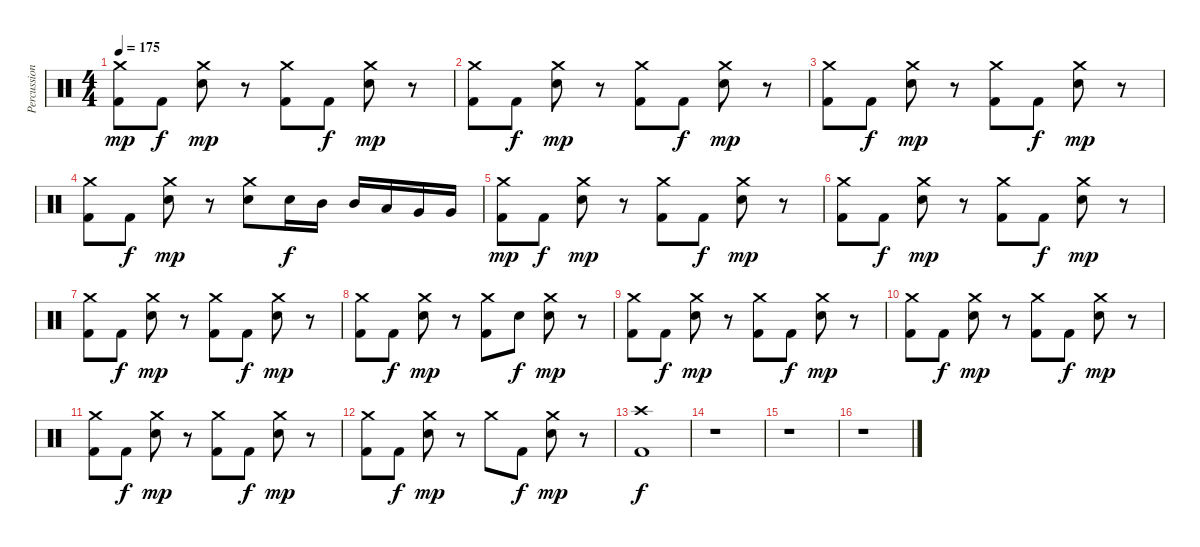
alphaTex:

\track ("Percussions" "Percussion") {instrument percussion}
\staff {score}
\articulation defaults
\ts (4 4)
\tempo 175
\clef neutral
\ks c
("Crash medium (hit)" "Kick (hit) 2").8{dy mp} "Kick (hit) 2".8{dy f} ("Crash medium (hit)" "Snare (hit) 2").8{dy mp} r.8 ("Crash medium (hit)" "Kick (hit) 2").8 "Kick (hit) 2".8{dy f} ("Crash medium (hit)" "Snare (hit) 2").8{dy mp} r.8 |
("Crash medium (hit)" "Kick (hit) 2").8 "Kick (hit) 2".8{dy f} ("Crash medium (hit)" "Snare (hit) 2").8{dy mp} r.8 ("Crash medium (hit)" "Kick (hit) 2").8 "Kick (hit) 2".8{dy f} ("Crash medium (hit)" "Snare (hit) 2").8{dy mp} r.8 |
("Crash medium (hit)" "Kick (hit) 2").8 "Kick (hit) 2".8{dy f} ("Crash medium (hit)" "Snare (hit) 2").8{dy mp} r.8 ("Crash medium (hit)" "Kick (hit) 2").8 "Kick (hit) 2".8{dy f} ("Crash medium (hit)" "Snare (hit) 2").8{dy mp} r.8 |
("Crash medium (hit)" "Kick (hit) 2").8 "Kick (hit) 2".8{dy f} ("Crash medium (hit)" "Snare (hit) 2").8{dy mp} r.8 ("Crash medium (hit)" "Snare (hit) 2").8 "Snare (hit) 2".16{dy f} "Mid Tom (hit)".16 "Mid Tom (hit)".16 "Low Tom (hit)".16 "Very Low Tom (hit)".16 "Very Low Tom (hit)".16 |
("Crash medium (hit)" "Kick (hit) 2").8{dy mp} "Kick (hit) 2".8{dy f} ("Crash medium (hit)" "Snare (hit) 2").8{dy mp} r.8 ("Crash medium (hit)" "Kick (hit) 2").8 "Kick (hit) 2".8{dy f} ("Crash medium (hit)" "Snare (hit) 2").8{dy mp} r.8 |
("Crash medium (hit)" "Kick (hit) 2").8 "Kick (hit) 2".8{dy f} ("Crash medium (hit)" "Snare (hit) 2").8{dy mp} r.8 ("Crash medium (hit)" "Kick (hit) 2").8 "Kick (hit) 2".8{dy f} ("Crash medium (hit)" "Snare (hit) 2").8{dy mp} r.8 |
("Crash medium (hit)" "Kick (hit) 2").8 "Kick (hit) 2".8{dy f} ("Crash medium (hit)" "Snare (hit) 2").8{dy mp} r.8 ("Crash medium (hit)" "Kick (hit) 2").8 "Kick (hit) 2".8{dy f} ("Crash medium (hit)" "Snare (hit) 2").8{dy mp} r.8 |
("Crash medium (hit)" "Kick (hit) 2").8 "Kick (hit) 2".8{dy f} ("Crash medium (hit)" "Snare (hit) 2").8{dy mp} r.8 ("Crash medium (hit)" "Kick (hit) 2").8 "Snare (hit) 2".8{dy f} ("Crash medium (hit)" "Snare (hit) 2").8{dy mp} r.8 |
("Crash medium (hit)" "Kick (hit) 2").8 "Kick (hit) 2".8{dy f} ("Crash medium (hit)" "Snare (hit) 2").8{dy mp} r.8 ("Crash medium (hit)" "Kick (hit) 2").8 "Kick (hit) 2".8{dy f} ("Crash medium (hit)" "Snare (hit) 2").8{dy mp} r.8 |
("Crash medium (hit)" "Kick (hit) 2").8 "Kick (hit) 2".8{dy f} ("Crash medium (hit)" "Snare (hit) 2").8{dy mp} r.8 ("Crash medium (hit)" "Kick (hit) 2").8 "Kick (hit) 2".8{dy f} ("Crash medium (hit)" "Snare (hit) 2").8{dy mp} r.8 |
("Crash medium (hit)" "Kick (hit) 2").8 "Kick (hit) 2".8{dy f} ("Crash medium (hit)" "Snare (hit) 2").8{dy mp} r.8 ("Crash medium (hit)" "Kick (hit) 2").8 "Kick (hit) 2".8{dy f} ("Crash medium (hit)" "Snare (hit) 2").8{dy mp} r.8 |
("Crash medium (hit)" "Kick (hit) 2").8 "Kick (hit) 2".8{dy f} ("Crash medium (hit)" "Snare (hit) 2").8{dy mp} r.8 "Crash medium (hit)".8 "Kick (hit) 2".8{dy f} ("Crash medium (hit)" "Snare (hit) 2").8{dy mp} r.8 |
("Crash high (hit)" "Kick (hit) 2").1{dy f} |
r.1 |
r.1 |
r.1
